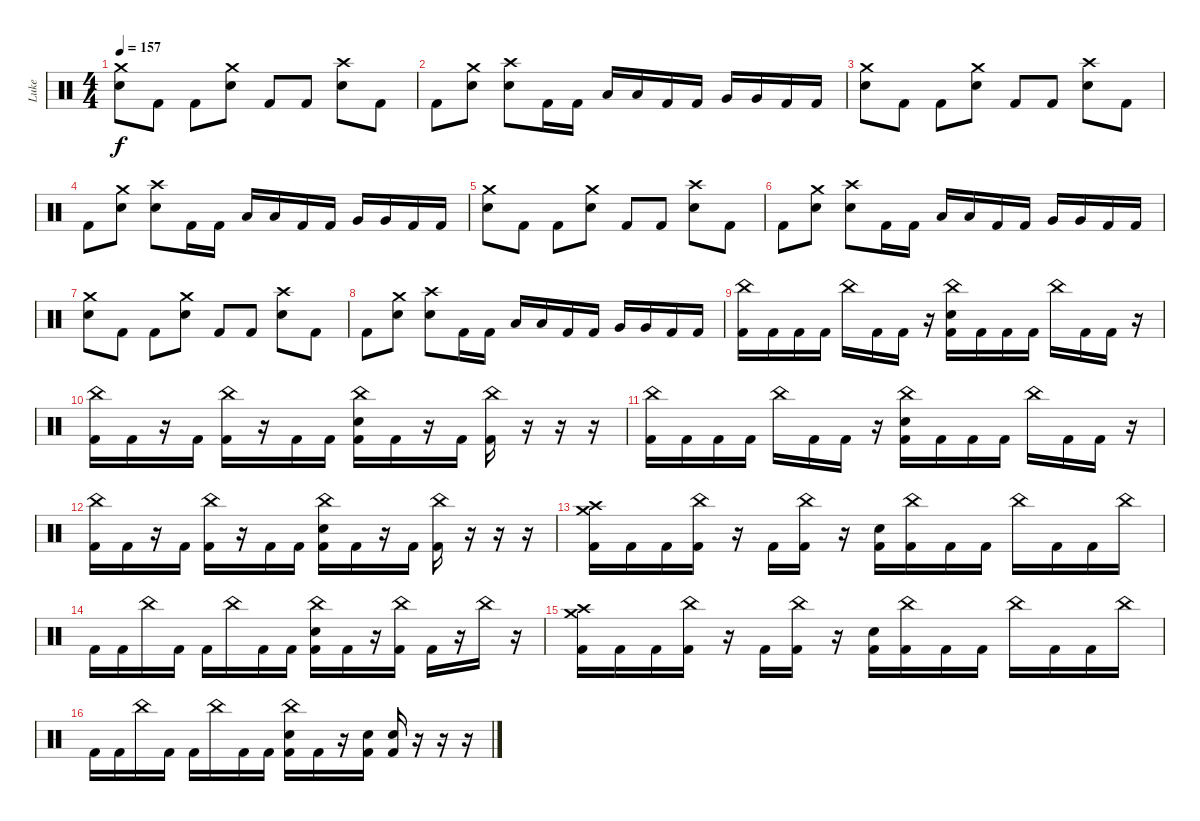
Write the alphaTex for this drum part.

\track ("Luke" "Luke") {instrument percussion}
\staff {score}
\articulation defaults
\ts (4 4)
\tempo 157
\clef neutral
\ks c
("Crash medium (hit)" "Electric Snare (hit)").8{dy f} "Kick (hit) 2".8 "Kick (hit) 2".8 ("Crash medium (hit)" "Electric Snare (hit)").8 "Kick (hit) 2".8 "Kick (hit) 2".8 ("Crash high (hit)" "Electric Snare (hit)").8 "Kick (hit) 2".8 |
"Kick (hit) 2".8 ("Crash medium (hit)" "Electric Snare (hit)").8 ("Crash high (hit)" "Electric Snare (hit)").8 "Kick (hit) 2".16 "Kick (hit) 2".16 "Low Tom (hit)".16 "Low Tom (hit)".16 "Kick (hit) 2".16 "Kick (hit) 2".16 "Very Low Tom (hit)".16 "Very Low Tom (hit)".16 "Kick (hit) 2".16 "Kick (hit) 2".16 |
("Crash medium (hit)" "Electric Snare (hit)").8 "Kick (hit) 2".8 "Kick (hit) 2".8 ("Crash medium (hit)" "Electric Snare (hit)").8 "Kick (hit) 2".8 "Kick (hit) 2".8 ("Crash high (hit)" "Electric Snare (hit)").8 "Kick (hit) 2".8 |
"Kick (hit) 2".8 ("Crash medium (hit)" "Electric Snare (hit)").8 ("Crash high (hit)" "Electric Snare (hit)").8 "Kick (hit) 2".16 "Kick (hit) 2".16 "Low Tom (hit)".16 "Low Tom (hit)".16 "Kick (hit) 2".16 "Kick (hit) 2".16 "Very Low Tom (hit)".16 "Very Low Tom (hit)".16 "Kick (hit) 2".16 "Kick (hit) 2".16 |
("Crash medium (hit)" "Electric Snare (hit)").8 "Kick (hit) 2".8 "Kick (hit) 2".8 ("Crash medium (hit)" "Electric Snare (hit)").8 "Kick (hit) 2".8 "Kick (hit) 2".8 ("Crash high (hit)" "Electric Snare (hit)").8 "Kick (hit) 2".8 |
"Kick (hit) 2".8 ("Crash medium (hit)" "Electric Snare (hit)").8 ("Crash high (hit)" "Electric Snare (hit)").8 "Kick (hit) 2".16 "Kick (hit) 2".16 "Low Tom (hit)".16 "Low Tom (hit)".16 "Kick (hit) 2".16 "Kick (hit) 2".16 "Very Low Tom (hit)".16 "Very Low Tom (hit)".16 "Kick (hit) 2".16 "Kick (hit) 2".16 |
("Crash medium (hit)" "Electric Snare (hit)").8 "Kick (hit) 2".8 "Kick (hit) 2".8 ("Crash medium (hit)" "Electric Snare (hit)").8 "Kick (hit) 2".8 "Kick (hit) 2".8 ("Crash high (hit)" "Electric Snare (hit)").8 "Kick (hit) 2".8 |
"Kick (hit) 2".8 ("Crash medium (hit)" "Electric Snare (hit)").8 ("Crash high (hit)" "Electric Snare (hit)").8 "Kick (hit) 2".16 "Kick (hit) 2".16 "Low Tom (hit)".16 "Low Tom (hit)".16 "Kick (hit) 2".16 "Kick (hit) 2".16 "Very Low Tom (hit)".16 "Very Low Tom (hit)".16 "Kick (hit) 2".16 "Kick (hit) 2".16 |
("China (hit)" "Kick (hit) 2").16 "Kick (hit) 2".16 "Kick (hit) 2".16 "Kick (hit) 2".16 "China (hit)".16 "Kick (hit) 2".16 "Kick (hit) 2".16 r.16 ("China (hit)" "Electric Snare (hit)" "Kick (hit) 2").16 "Kick (hit) 2".16 "Kick (hit) 2".16 "Kick (hit) 2".16 "China (hit)".16 "Kick (hit) 2".16 "Kick (hit) 2".16 r.16 |
("China (hit)" "Kick (hit) 2").16 "Kick (hit) 2".16 r.16 "Kick (hit) 2".16 ("China (hit)" "Kick (hit) 2").16 r.16 "Kick (hit) 2".16 "Kick (hit) 2".16 ("China (hit)" "Electric Snare (hit)" "Kick (hit) 2").16 "Kick (hit) 2".16 r.16 "Kick (hit) 2".16 ("China (hit)" "Kick (hit) 2").16 r.16 r.16 r.16 |
("China (hit)" "Kick (hit) 2").16 "Kick (hit) 2".16 "Kick (hit) 2".16 "Kick (hit) 2".16 "China (hit)".16 "Kick (hit) 2".16 "Kick (hit) 2".16 r.16 ("China (hit)" "Electric Snare (hit)" "Kick (hit) 2").16 "Kick (hit) 2".16 "Kick (hit) 2".16 "Kick (hit) 2".16 "China (hit)".16 "Kick (hit) 2".16 "Kick (hit) 2".16 r.16 |
("China (hit)" "Kick (hit) 2").16 "Kick (hit) 2".16 r.16 "Kick (hit) 2".16 ("China (hit)" "Kick (hit) 2").16 r.16 "Kick (hit) 2".16 "Kick (hit) 2".16 ("China (hit)" "Electric Snare (hit)" "Kick (hit) 2").16 "Kick (hit) 2".16 r.16 "Kick (hit) 2".16 ("China (hit)" "Kick (hit) 2").16 r.16 r.16 r.16 |
("Crash medium (hit)" "Crash high (hit)" "Kick (hit) 2").16 "Kick (hit) 2".16 "Kick (hit) 2".16 ("China (hit)" "Kick (hit) 2").16 r.16 "Kick (hit) 2".16 ("China (hit)" "Kick (hit) 2").16 r.16 ("Electric Snare (hit)" "Kick (hit) 2").16 ("China (hit)" "Kick (hit) 2").16 "Kick (hit) 2".16 "Kick (hit) 2".16 "China (hit)".16 "Kick (hit) 2".16 "Kick (hit) 2".16 "China (hit)".16 |
"Kick (hit) 2".16 "Kick (hit) 2".16 "China (hit)".16 "Kick (hit) 2".16 "Kick (hit) 2".16 "China (hit)".16 "Kick (hit) 2".16 "Kick (hit) 2".16 ("China (hit)" "Electric Snare (hit)" "Kick (hit) 2").16 "Kick (hit) 2".16 r.16 ("China (hit)" "Kick (hit) 2").16 "Kick (hit) 2".16 r.16 "China (hit)".16 r.16 |
("Crash medium (hit)" "Crash high (hit)" "Kick (hit) 2").16 "Kick (hit) 2".16 "Kick (hit) 2".16 ("China (hit)" "Kick (hit) 2").16 r.16 "Kick (hit) 2".16 ("China (hit)" "Kick (hit) 2").16 r.16 ("Electric Snare (hit)" "Kick (hit) 2").16 ("China (hit)" "Kick (hit) 2").16 "Kick (hit) 2".16 "Kick (hit) 2".16 "China (hit)".16 "Kick (hit) 2".16 "Kick (hit) 2".16 "China (hit)".16 |
"Kick (hit) 2".16 "Kick (hit) 2".16 "China (hit)".16 "Kick (hit) 2".16 "Kick (hit) 2".16 "China (hit)".16 "Kick (hit) 2".16 "Kick (hit) 2".16 ("China (hit)" "Electric Snare (hit)" "Kick (hit) 2").16 "Kick (hit) 2".16 r.16 ("Electric Snare (hit)" "Kick (hit) 2").16 ("Electric Snare (hit)" "Kick (hit) 2").16 r.16 r.16 r.16
